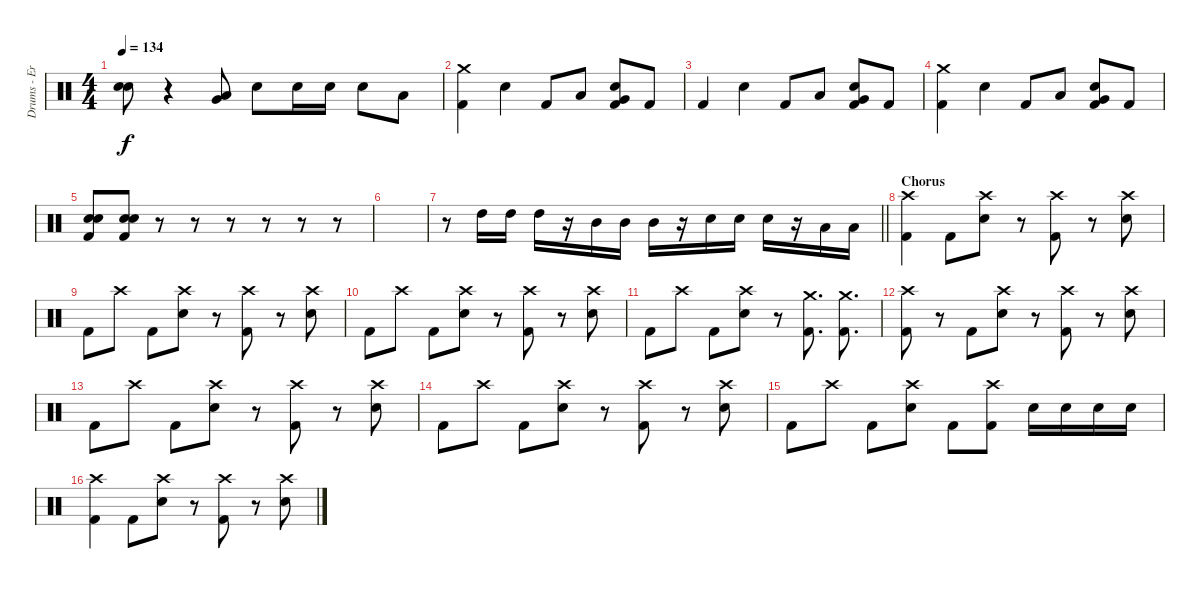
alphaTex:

\track ("Drums - Eric Young" "Drums - Er") {instrument percussion}
\staff {score}
\articulation defaults
\ts (4 4)
\tempo 134
\clef neutral
\ks c
("Snare (hit)"{t} "Snare (hit)"{t}).8{dy f} r.4 ("Low Tom (hit)" "Very Low Tom (hit)").8 "Electric Snare (hit)".8 "Snare (hit) 2".16 "Snare (hit) 2".16 "Snare (hit) 2".8 "Low Tom (hit)".8 |
("Crash medium (hit)" "Kick (hit) 2").4 "Snare (hit) 2".4 "Kick (hit) 2".8 "Low Tom (hit)".8 ("Snare (hit) 2" "Very Low Tom (hit)" "Kick (hit) 2").8 "Kick (hit) 2".8 |
"Kick (hit) 2".4 "Snare (hit) 2".4 "Kick (hit) 2".8 "Low Tom (hit)".8 ("Snare (hit) 2" "Very Low Tom (hit)" "Kick (hit) 2").8 "Kick (hit) 2".8 |
("Crash medium (hit)" "Kick (hit) 2").4 "Snare (hit) 2".4 "Kick (hit) 2".8 "Low Tom (hit)".8 ("Snare (hit) 2" "Very Low Tom (hit)" "Kick (hit) 2").8 "Kick (hit) 2".8 |
("Snare (hit) 2" "Electric Snare (hit)" "Kick (hit) 2").8 ("Snare (hit) 2" "Electric Snare (hit)" "Kick (hit) 2").8 r.8 r.8 r.8 r.8 r.8 r.8 |
|
\barLineRight lightlight
r.8 "High Tom (hit)".16 "High Tom (hit)".16 "High Tom (hit)".16 r.16 "Mid Tom (hit)".16 "Mid Tom (hit)".16 "Mid Tom (hit)".16 r.16 "Snare (hit) 2".16 "Snare (hit) 2".16 "Snare (hit) 2".16 r.16 "Low Tom (hit)".16 "Low Tom (hit)".16 |
\section ("" "Chorus")
("Crash high (hit)" "Kick (hit) 2").4 "Kick (hit) 2".8 ("Crash high (hit)" "Electric Snare (hit)").8 r.8 ("Crash high (hit)" "Kick (hit) 2").8 r.8 ("Crash high (hit)" "Electric Snare (hit)").8 |
"Kick (hit) 2".8 "Crash high (hit)".8 "Kick (hit) 2".8 ("Crash high (hit)" "Electric Snare (hit)").8 r.8 ("Crash high (hit)" "Kick (hit) 2").8 r.8 ("Crash high (hit)" "Electric Snare (hit)").8 |
"Kick (hit) 2".8 "Crash high (hit)".8 "Kick (hit) 2".8 ("Crash high (hit)" "Electric Snare (hit)").8 r.8 ("Crash high (hit)" "Kick (hit) 2").8 r.8 ("Crash high (hit)" "Electric Snare (hit)").8 |
"Kick (hit) 2".8 "Crash high (hit)".8 "Kick (hit) 2".8 ("Crash high (hit)" "Electric Snare (hit)").8 r.8 ("Crash medium (hit)" "Kick (hit) 2").8{d} ("Crash medium (hit)" "Kick (hit) 2").8{d} |
("Crash high (hit)" "Kick (hit) 2").8 r.8 "Kick (hit) 2".8 ("Crash high (hit)" "Electric Snare (hit)").8 r.8 ("Crash high (hit)" "Kick (hit) 2").8 r.8 ("Crash high (hit)" "Electric Snare (hit)").8 |
"Kick (hit) 2".8 "Crash high (hit)".8 "Kick (hit) 2".8 ("Crash high (hit)" "Electric Snare (hit)").8 r.8 ("Crash high (hit)" "Kick (hit) 2").8 r.8 ("Crash high (hit)" "Electric Snare (hit)").8 |
"Kick (hit) 2".8 "Crash high (hit)".8 "Kick (hit) 2".8 ("Crash high (hit)" "Electric Snare (hit)").8 r.8 ("Crash high (hit)" "Kick (hit) 2").8 r.8 ("Crash high (hit)" "Electric Snare (hit)").8 |
"Kick (hit) 2".8 "Crash high (hit)".8 "Kick (hit) 2".8 ("Crash high (hit)" "Electric Snare (hit)").8 "Kick (hit) 2".8 ("Crash high (hit)" "Kick (hit) 2").8 "Electric Snare (hit)".16 "Electric Snare (hit)".16 "Electric Snare (hit)".16 "Electric Snare (hit)".16 |
("Crash high (hit)" "Kick (hit) 2").4 "Kick (hit) 2".8 ("Crash high (hit)" "Electric Snare (hit)").8 r.8 ("Crash high (hit)" "Kick (hit) 2").8 r.8 ("Crash high (hit)" "Electric Snare (hit)").8
